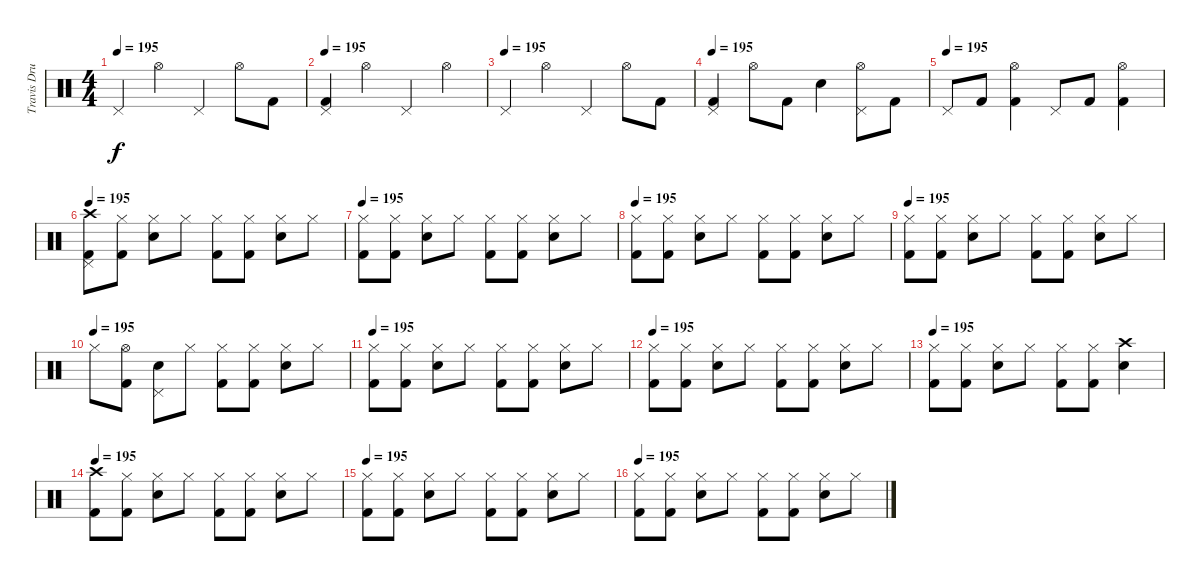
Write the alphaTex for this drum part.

\track ("Travis Drums" "Travis Dru") {instrument percussion}
\staff {score}
\articulation defaults
\ts (4 4)
\tempo 195
\clef neutral
\ks c "Pedal Hi-Hat (hit)".4{dy f} "Hi-Hat (open)".4 "Pedal Hi-Hat (hit)".4 "Hi-Hat (open)".8 "Kick (hit) 2".8
|
\tempo 195
("Pedal Hi-Hat (hit)" "Kick (hit) 2").4 "Hi-Hat (open)".4 "Pedal Hi-Hat (hit)".4 "Hi-Hat (open)".4 |
\tempo (195)
"Pedal Hi-Hat (hit)".4 "Hi-Hat (open)".4 "Pedal Hi-Hat (hit)".4 "Hi-Hat (open)".8 "Kick (hit) 2".8 |
\tempo 195
("Pedal Hi-Hat (hit)" "Kick (hit) 2").4 "Hi-Hat (open)".8 "Kick (hit) 2".8 "Electric Snare (hit)".4 ("Pedal Hi-Hat (hit)" "Hi-Hat (open)").8 "Kick (hit) 2".8 |
\tempo (195)
"Pedal Hi-Hat (hit)".8 "Kick (hit) 2".8 ("Hi-Hat (open)" "Kick (hit) 2").4 "Pedal Hi-Hat (hit)".8 "Kick (hit) 2".8 ("Hi-Hat (open)" "Kick (hit) 2").4 |
\tempo 195
("Pedal Hi-Hat (hit)" "Crash high (hit)" "Kick (hit) 2").8 ("Hi-Hat (closed)" "Kick (hit) 2").8 ("Hi-Hat (closed)" "Electric Snare (hit)").8 "Hi-Hat (closed)".8 ("Hi-Hat (closed)" "Kick (hit) 2").8 ("Hi-Hat (closed)" "Kick (hit) 2").8 ("Hi-Hat (closed)" "Electric Snare (hit)").8 "Hi-Hat (closed)".8 |
\tempo 195
("Hi-Hat (closed)" "Kick (hit) 2").8 ("Hi-Hat (closed)" "Kick (hit) 2").8 ("Hi-Hat (closed)" "Electric Snare (hit)").8 "Hi-Hat (closed)".8 ("Hi-Hat (closed)" "Kick (hit) 2").8 ("Hi-Hat (closed)" "Kick (hit) 2").8 ("Hi-Hat (closed)" "Electric Snare (hit)").8 "Hi-Hat (closed)".8 |
\tempo 195
("Hi-Hat (closed)" "Kick (hit) 2").8 ("Hi-Hat (closed)" "Kick (hit) 2").8 ("Hi-Hat (closed)" "Electric Snare (hit)").8 "Hi-Hat (closed)".8 ("Hi-Hat (closed)" "Kick (hit) 2").8 ("Hi-Hat (closed)" "Kick (hit) 2").8 ("Hi-Hat (closed)" "Electric Snare (hit)").8 "Hi-Hat (closed)".8 |
\tempo 195
("Hi-Hat (closed)" "Kick (hit) 2").8 ("Hi-Hat (closed)" "Kick (hit) 2").8 ("Hi-Hat (closed)" "Electric Snare (hit)").8 "Hi-Hat (closed)".8 ("Hi-Hat (closed)" "Kick (hit) 2").8 ("Hi-Hat (closed)" "Kick (hit) 2").8 ("Hi-Hat (closed)" "Electric Snare (hit)").8 "Hi-Hat (closed)".8 |
\tempo (195)
"Hi-Hat (closed)".8 ("Hi-Hat (open)" "Kick (hit) 2").8 ("Pedal Hi-Hat (hit)" "Electric Snare (hit)").8 "Hi-Hat (closed)".8 ("Hi-Hat (closed)" "Kick (hit) 2").8 ("Hi-Hat (closed)" "Kick (hit) 2").8 ("Hi-Hat (closed)" "Electric Snare (hit)").8 "Hi-Hat (closed)".8 |
\tempo 195
("Hi-Hat (closed)" "Kick (hit) 2").8 ("Hi-Hat (closed)" "Kick (hit) 2").8 ("Hi-Hat (closed)" "Electric Snare (hit)").8 "Hi-Hat (closed)".8 ("Hi-Hat (closed)" "Kick (hit) 2").8 ("Hi-Hat (closed)" "Kick (hit) 2").8 ("Hi-Hat (closed)" "Electric Snare (hit)").8 "Hi-Hat (closed)".8 |
\tempo 195
("Hi-Hat (closed)" "Kick (hit) 2").8 ("Hi-Hat (closed)" "Kick (hit) 2").8 ("Hi-Hat (closed)" "Electric Snare (hit)").8 "Hi-Hat (closed)".8 ("Hi-Hat (closed)" "Kick (hit) 2").8 ("Hi-Hat (closed)" "Kick (hit) 2").8 ("Hi-Hat (closed)" "Electric Snare (hit)").8 "Hi-Hat (closed)".8 |
\tempo 195
("Hi-Hat (closed)" "Kick (hit) 2").8 ("Hi-Hat (closed)" "Kick (hit) 2").8 ("Hi-Hat (closed)" "Electric Snare (hit)").8 "Hi-Hat (closed)".8 ("Hi-Hat (closed)" "Kick (hit) 2").8 ("Hi-Hat (closed)" "Kick (hit) 2").8 ("Crash high (hit)" "Electric Snare (hit)").4 |
\tempo 195
("Crash high (hit)" "Kick (hit) 2").8 ("Hi-Hat (closed)" "Kick (hit) 2").8 ("Hi-Hat (closed)" "Electric Snare (hit)").8 "Hi-Hat (closed)".8 ("Hi-Hat (closed)" "Kick (hit) 2").8 ("Hi-Hat (closed)" "Kick (hit) 2").8 ("Hi-Hat (closed)" "Electric Snare (hit)").8 "Hi-Hat (closed)".8 |
\tempo 195
("Hi-Hat (closed)" "Kick (hit) 2").8 ("Hi-Hat (closed)" "Kick (hit) 2").8 ("Hi-Hat (closed)" "Electric Snare (hit)").8 "Hi-Hat (closed)".8 ("Hi-Hat (closed)" "Kick (hit) 2").8 ("Hi-Hat (closed)" "Kick (hit) 2").8 ("Hi-Hat (closed)" "Electric Snare (hit)").8 "Hi-Hat (closed)".8 |
\tempo 195
("Hi-Hat (closed)" "Kick (hit) 2").8 ("Hi-Hat (closed)" "Kick (hit) 2").8 ("Hi-Hat (closed)" "Electric Snare (hit)").8 "Hi-Hat (closed)".8 ("Hi-Hat (closed)" "Kick (hit) 2").8 ("Hi-Hat (closed)" "Kick (hit) 2").8 ("Hi-Hat (closed)" "Electric Snare (hit)").8 "Hi-Hat (closed)".8
